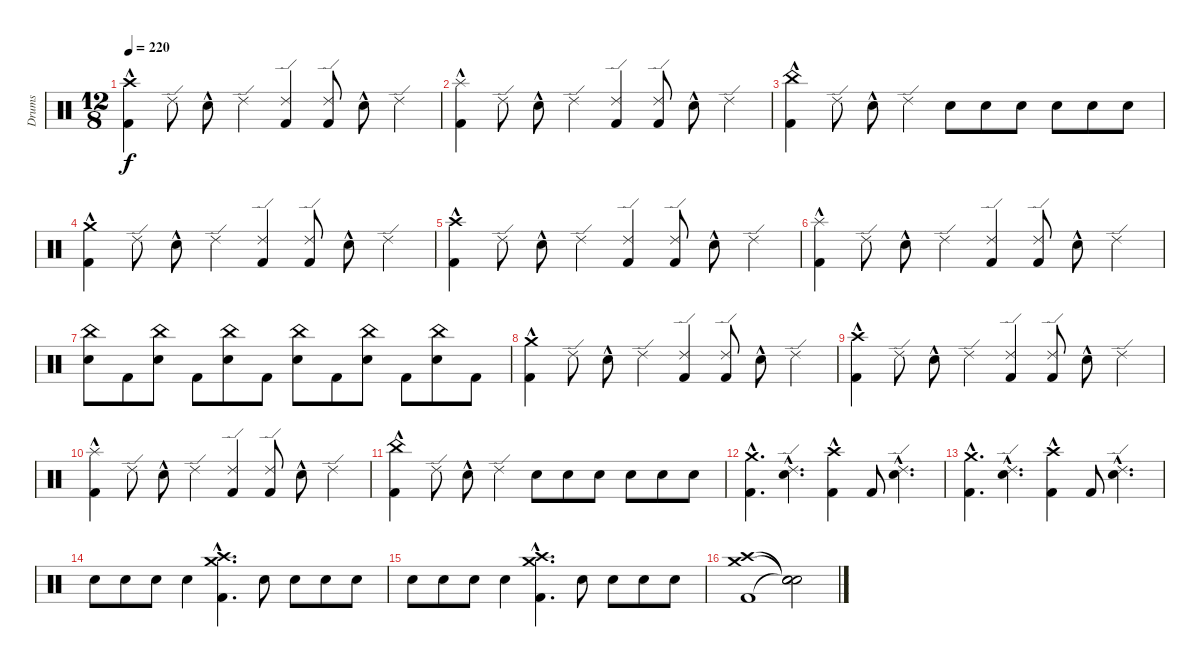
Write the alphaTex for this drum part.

\track ("Drums" "Drums") {instrument percussion}
\staff {score}
\articulation defaults
\ts (12 8)
\tempo 220
\clef neutral
\ks c
("Kick (hit) 2"{hac} "Crash high (hit)").4{dy f} "Ride (edge) 2".8 "Snare (hit) 2"{hac}.8 "Ride (edge) 2".4 ("Kick (hit) 2" "Ride (edge) 2").4 ("Kick (hit) 2" "Ride (edge) 2").8 "Snare (hit) 2"{hac}.8 "Ride (edge) 2".4 |
("Splash (hit)" "Kick (hit) 2"{hac}).4 "Ride (edge) 2".8 "Snare (hit) 2"{hac}.8 "Ride (edge) 2".4 ("Kick (hit) 2" "Ride (edge) 2").4 ("Kick (hit) 2" "Ride (edge) 2").8 "Snare (hit) 2"{hac}.8 "Ride (edge) 2".4 |
("China (hit)" "Kick (hit) 2"{hac}).4 "Ride (edge) 2".8 "Snare (hit) 2"{hac}.8 "Ride (edge) 2".4 "Snare (hit) 2".8 "Snare (hit) 2".8 "Snare (hit) 2".8 "Snare (hit) 2".8 "Snare (hit) 2".8 "Snare (hit) 2".8 |
("Kick (hit) 2"{hac} "Crash medium (hit)").4 "Ride (edge) 2".8 "Snare (hit) 2"{hac}.8 "Ride (edge) 2".4 ("Kick (hit) 2" "Ride (edge) 2").4 ("Kick (hit) 2" "Ride (edge) 2").8 "Snare (hit) 2"{hac}.8 "Ride (edge) 2".4 |
("Kick (hit) 2"{hac} "Crash high (hit)").4 "Ride (edge) 2".8 "Snare (hit) 2"{hac}.8 "Ride (edge) 2".4 ("Kick (hit) 2" "Ride (edge) 2").4 ("Kick (hit) 2" "Ride (edge) 2").8 "Snare (hit) 2"{hac}.8 "Ride (edge) 2".4 |
("Splash (hit)" "Kick (hit) 2"{hac}).4 "Ride (edge) 2".8 "Snare (hit) 2"{hac}.8 "Ride (edge) 2".4 ("Kick (hit) 2" "Ride (edge) 2").4 ("Kick (hit) 2" "Ride (edge) 2").8 "Snare (hit) 2"{hac}.8 "Ride (edge) 2".4 |
("Snare (hit) 2" "China (hit)").8 "Kick (hit) 2".8 ("Snare (hit) 2" "China (hit)").8 "Kick (hit) 2".8 ("Snare (hit) 2" "China (hit)").8 "Kick (hit) 2".8 ("Snare (hit) 2" "China (hit)").8 "Kick (hit) 2".8 ("Snare (hit) 2" "China (hit)").8 "Kick (hit) 2".8 ("Snare (hit) 2" "China (hit)").8 "Kick (hit) 2".8 |
("Kick (hit) 2"{hac} "Crash medium (hit)").4 "Ride (edge) 2".8 "Snare (hit) 2"{hac}.8 "Ride (edge) 2".4 ("Kick (hit) 2" "Ride (edge) 2").4 ("Kick (hit) 2" "Ride (edge) 2").8 "Snare (hit) 2"{hac}.8 "Ride (edge) 2".4 |
("Kick (hit) 2"{hac} "Crash high (hit)").4 "Ride (edge) 2".8 "Snare (hit) 2"{hac}.8 "Ride (edge) 2".4 ("Kick (hit) 2" "Ride (edge) 2").4 ("Kick (hit) 2" "Ride (edge) 2").8 "Snare (hit) 2"{hac}.8 "Ride (edge) 2".4 |
("Splash (hit)" "Kick (hit) 2"{hac}).4 "Ride (edge) 2".8 "Snare (hit) 2"{hac}.8 "Ride (edge) 2".4 ("Kick (hit) 2" "Ride (edge) 2").4 ("Kick (hit) 2" "Ride (edge) 2").8 "Snare (hit) 2"{hac}.8 "Ride (edge) 2".4 |
("China (hit)" "Kick (hit) 2"{hac}).4 "Ride (edge) 2".8 "Snare (hit) 2"{hac}.8 "Ride (edge) 2".4 "Snare (hit) 2".8 "Snare (hit) 2".8 "Snare (hit) 2".8 "Snare (hit) 2".8 "Snare (hit) 2".8 "Snare (hit) 2".8 |
("Kick (hit) 2"{hac} "Crash medium (hit)"{hac}).4{d} ("Ride (edge) 2"{hac} "Snare (hit) 2"{hac}).4{d} ("Kick (hit) 2" "Crash high (hit)"{hac}).4 "Kick (hit) 2".8 ("Ride (edge) 2"{hac} "Snare (hit) 2"{hac}).4{d} |
("Kick (hit) 2"{hac} "Crash medium (hit)"{hac}).4{d} ("Ride (edge) 2"{hac} "Snare (hit) 2"{hac}).4{d} ("Kick (hit) 2" "Crash high (hit)"{hac}).4 "Kick (hit) 2".8 ("Ride (edge) 2"{hac} "Snare (hit) 2"{hac}).4{d} |
"Snare (hit) 2".8 "Snare (hit) 2".8 "Snare (hit) 2".8 "Snare (hit) 2".4 ("Crash medium (hit)"{hac} "Crash high (hit)"{hac} "Kick (hit) 2"{hac}).4{d} "Snare (hit) 2".8 "Snare (hit) 2".8 "Snare (hit) 2".8 "Snare (hit) 2".8 |
"Snare (hit) 2".8 "Snare (hit) 2".8 "Snare (hit) 2".8 "Snare (hit) 2".4 ("Crash medium (hit)"{hac} "Crash high (hit)"{hac} "Kick (hit) 2"{hac}).4{d} "Snare (hit) 2".8 "Snare (hit) 2".8 "Snare (hit) 2".8 "Snare (hit) 2".8 |
("Crash medium (hit)" "Crash high (hit)" "Kick (hit) 2").1 ("Snare (hit)"{t} "Snare (hit)"{t} "Snare (hit)"{t}).2
